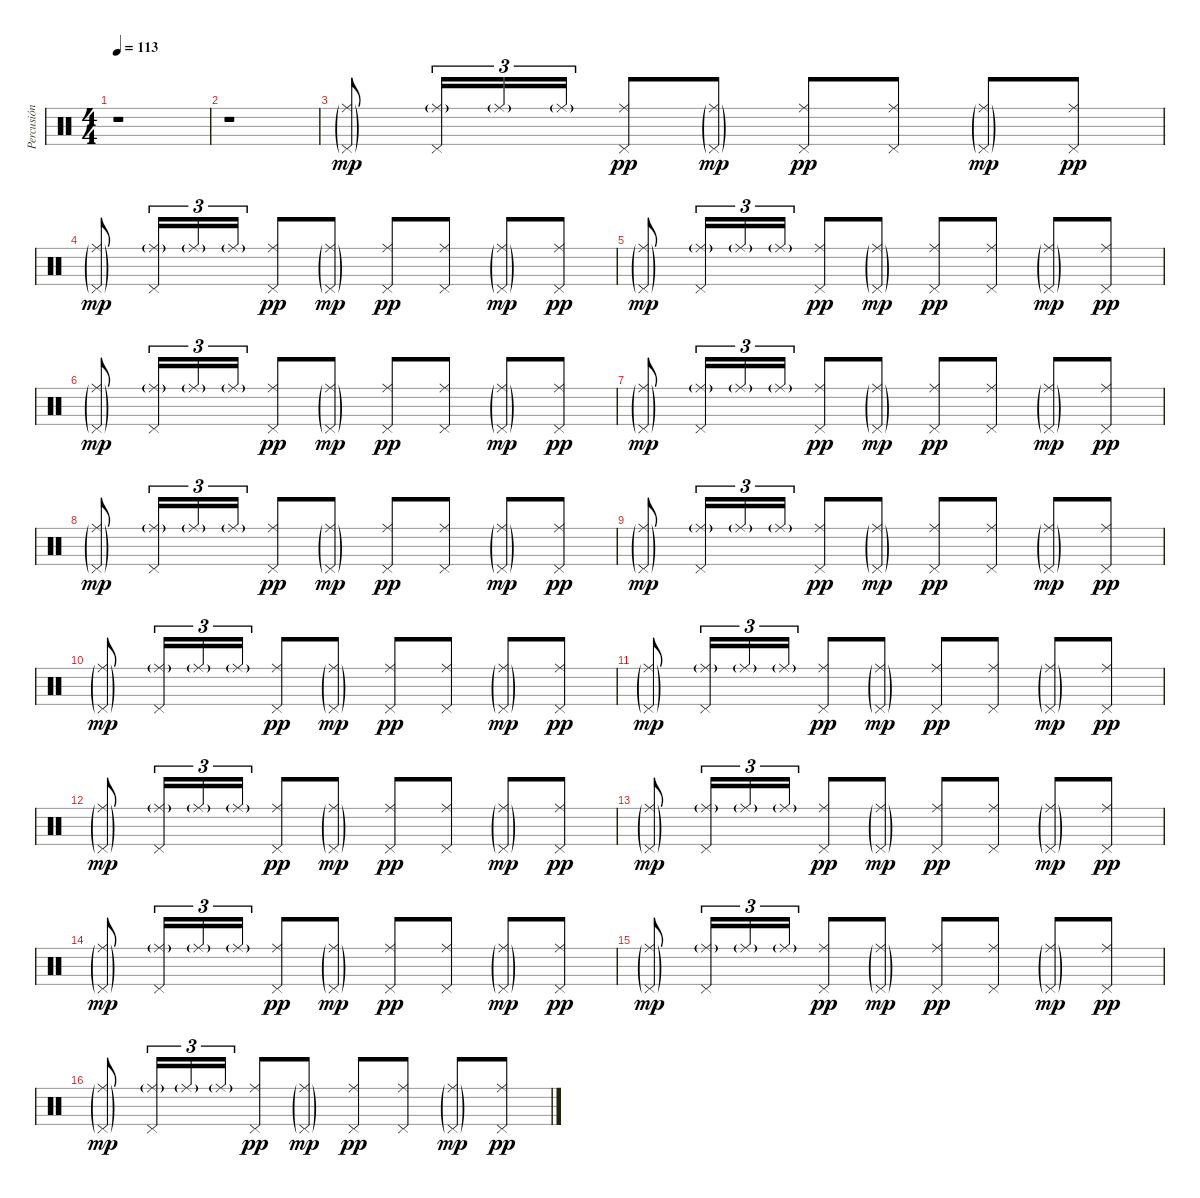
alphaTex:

\track ("Percusión" "Percusión") {instrument percussion}
\staff {score}
\articulation defaults
\ts (4 4)
\tempo 113
\clef neutral
\ks c
r.1{dy mp} |
r.1 |
("Pedal Hi-Hat (hit)"{g} "Ride (middle)"{g}).8 ("Pedal Hi-Hat (hit)" "Ride (middle)"{g}).16{tu (3 2)} "Ride (middle)"{g}.16{tu (3 2)} "Ride (middle)"{g}.16{tu (3 2)} ("Pedal Hi-Hat (hit)" "Ride (middle)").8{dy pp} ("Pedal Hi-Hat (hit)"{g} "Ride (middle)"{g}).8{dy mp} ("Pedal Hi-Hat (hit)" "Ride (middle)").8{dy pp} ("Pedal Hi-Hat (hit)" "Ride (middle)").8 ("Pedal Hi-Hat (hit)"{g} "Ride (middle)"{g}).8{dy mp} ("Pedal Hi-Hat (hit)" "Ride (middle)").8{dy pp} |
("Pedal Hi-Hat (hit)"{g} "Ride (middle)"{g}).8{dy mp} ("Pedal Hi-Hat (hit)" "Ride (middle)"{g}).16{tu (3 2)} "Ride (middle)"{g}.16{tu (3 2)} "Ride (middle)"{g}.16{tu (3 2)} ("Pedal Hi-Hat (hit)" "Ride (middle)").8{dy pp} ("Pedal Hi-Hat (hit)"{g} "Ride (middle)"{g}).8{dy mp} ("Pedal Hi-Hat (hit)" "Ride (middle)").8{dy pp} ("Pedal Hi-Hat (hit)" "Ride (middle)").8 ("Pedal Hi-Hat (hit)"{g} "Ride (middle)"{g}).8{dy mp} ("Pedal Hi-Hat (hit)" "Ride (middle)").8{dy pp} |
("Pedal Hi-Hat (hit)"{g} "Ride (middle)"{g}).8{dy mp} ("Pedal Hi-Hat (hit)" "Ride (middle)"{g}).16{tu (3 2)} "Ride (middle)"{g}.16{tu (3 2)} "Ride (middle)"{g}.16{tu (3 2)} ("Pedal Hi-Hat (hit)" "Ride (middle)").8{dy pp} ("Pedal Hi-Hat (hit)"{g} "Ride (middle)"{g}).8{dy mp} ("Pedal Hi-Hat (hit)" "Ride (middle)").8{dy pp} ("Pedal Hi-Hat (hit)" "Ride (middle)").8 ("Pedal Hi-Hat (hit)"{g} "Ride (middle)"{g}).8{dy mp} ("Pedal Hi-Hat (hit)" "Ride (middle)").8{dy pp} |
("Pedal Hi-Hat (hit)"{g} "Ride (middle)"{g}).8{dy mp} ("Pedal Hi-Hat (hit)" "Ride (middle)"{g}).16{tu (3 2)} "Ride (middle)"{g}.16{tu (3 2)} "Ride (middle)"{g}.16{tu (3 2)} ("Pedal Hi-Hat (hit)" "Ride (middle)").8{dy pp} ("Pedal Hi-Hat (hit)"{g} "Ride (middle)"{g}).8{dy mp} ("Pedal Hi-Hat (hit)" "Ride (middle)").8{dy pp} ("Pedal Hi-Hat (hit)" "Ride (middle)").8 ("Pedal Hi-Hat (hit)"{g} "Ride (middle)"{g}).8{dy mp} ("Pedal Hi-Hat (hit)" "Ride (middle)").8{dy pp} |
("Pedal Hi-Hat (hit)"{g} "Ride (middle)"{g}).8{dy mp} ("Pedal Hi-Hat (hit)" "Ride (middle)"{g}).16{tu (3 2)} "Ride (middle)"{g}.16{tu (3 2)} "Ride (middle)"{g}.16{tu (3 2)} ("Pedal Hi-Hat (hit)" "Ride (middle)").8{dy pp} ("Pedal Hi-Hat (hit)"{g} "Ride (middle)"{g}).8{dy mp} ("Pedal Hi-Hat (hit)" "Ride (middle)").8{dy pp} ("Pedal Hi-Hat (hit)" "Ride (middle)").8 ("Pedal Hi-Hat (hit)"{g} "Ride (middle)"{g}).8{dy mp} ("Pedal Hi-Hat (hit)" "Ride (middle)").8{dy pp} |
("Pedal Hi-Hat (hit)"{g} "Ride (middle)"{g}).8{dy mp} ("Pedal Hi-Hat (hit)" "Ride (middle)"{g}).16{tu (3 2)} "Ride (middle)"{g}.16{tu (3 2)} "Ride (middle)"{g}.16{tu (3 2)} ("Pedal Hi-Hat (hit)" "Ride (middle)").8{dy pp} ("Pedal Hi-Hat (hit)"{g} "Ride (middle)"{g}).8{dy mp} ("Pedal Hi-Hat (hit)" "Ride (middle)").8{dy pp} ("Pedal Hi-Hat (hit)" "Ride (middle)").8 ("Pedal Hi-Hat (hit)"{g} "Ride (middle)"{g}).8{dy mp} ("Pedal Hi-Hat (hit)" "Ride (middle)").8{dy pp} |
("Pedal Hi-Hat (hit)"{g} "Ride (middle)"{g}).8{dy mp} ("Pedal Hi-Hat (hit)" "Ride (middle)"{g}).16{tu (3 2)} "Ride (middle)"{g}.16{tu (3 2)} "Ride (middle)"{g}.16{tu (3 2)} ("Pedal Hi-Hat (hit)" "Ride (middle)").8{dy pp} ("Pedal Hi-Hat (hit)"{g} "Ride (middle)"{g}).8{dy mp} ("Pedal Hi-Hat (hit)" "Ride (middle)").8{dy pp} ("Pedal Hi-Hat (hit)" "Ride (middle)").8 ("Pedal Hi-Hat (hit)"{g} "Ride (middle)"{g}).8{dy mp} ("Pedal Hi-Hat (hit)" "Ride (middle)").8{dy pp} |
("Pedal Hi-Hat (hit)"{g} "Ride (middle)"{g}).8{dy mp} ("Pedal Hi-Hat (hit)" "Ride (middle)"{g}).16{tu (3 2)} "Ride (middle)"{g}.16{tu (3 2)} "Ride (middle)"{g}.16{tu (3 2)} ("Pedal Hi-Hat (hit)" "Ride (middle)").8{dy pp} ("Pedal Hi-Hat (hit)"{g} "Ride (middle)"{g}).8{dy mp} ("Pedal Hi-Hat (hit)" "Ride (middle)").8{dy pp} ("Pedal Hi-Hat (hit)" "Ride (middle)").8 ("Pedal Hi-Hat (hit)"{g} "Ride (middle)"{g}).8{dy mp} ("Pedal Hi-Hat (hit)" "Ride (middle)").8{dy pp} |
("Pedal Hi-Hat (hit)"{g} "Ride (middle)"{g}).8{dy mp} ("Pedal Hi-Hat (hit)" "Ride (middle)"{g}).16{tu (3 2)} "Ride (middle)"{g}.16{tu (3 2)} "Ride (middle)"{g}.16{tu (3 2)} ("Pedal Hi-Hat (hit)" "Ride (middle)").8{dy pp} ("Pedal Hi-Hat (hit)"{g} "Ride (middle)"{g}).8{dy mp} ("Pedal Hi-Hat (hit)" "Ride (middle)").8{dy pp} ("Pedal Hi-Hat (hit)" "Ride (middle)").8 ("Pedal Hi-Hat (hit)"{g} "Ride (middle)"{g}).8{dy mp} ("Pedal Hi-Hat (hit)" "Ride (middle)").8{dy pp} |
("Pedal Hi-Hat (hit)"{g} "Ride (middle)"{g}).8{dy mp} ("Pedal Hi-Hat (hit)" "Ride (middle)"{g}).16{tu (3 2)} "Ride (middle)"{g}.16{tu (3 2)} "Ride (middle)"{g}.16{tu (3 2)} ("Pedal Hi-Hat (hit)" "Ride (middle)").8{dy pp} ("Pedal Hi-Hat (hit)"{g} "Ride (middle)"{g}).8{dy mp} ("Pedal Hi-Hat (hit)" "Ride (middle)").8{dy pp} ("Pedal Hi-Hat (hit)" "Ride (middle)").8 ("Pedal Hi-Hat (hit)"{g} "Ride (middle)"{g}).8{dy mp} ("Pedal Hi-Hat (hit)" "Ride (middle)").8{dy pp} |
("Pedal Hi-Hat (hit)"{g} "Ride (middle)"{g}).8{dy mp} ("Pedal Hi-Hat (hit)" "Ride (middle)"{g}).16{tu (3 2)} "Ride (middle)"{g}.16{tu (3 2)} "Ride (middle)"{g}.16{tu (3 2)} ("Pedal Hi-Hat (hit)" "Ride (middle)").8{dy pp} ("Pedal Hi-Hat (hit)"{g} "Ride (middle)"{g}).8{dy mp} ("Pedal Hi-Hat (hit)" "Ride (middle)").8{dy pp} ("Pedal Hi-Hat (hit)" "Ride (middle)").8 ("Pedal Hi-Hat (hit)"{g} "Ride (middle)"{g}).8{dy mp} ("Pedal Hi-Hat (hit)" "Ride (middle)").8{dy pp} |
("Pedal Hi-Hat (hit)"{g} "Ride (middle)"{g}).8{dy mp} ("Pedal Hi-Hat (hit)" "Ride (middle)"{g}).16{tu (3 2)} "Ride (middle)"{g}.16{tu (3 2)} "Ride (middle)"{g}.16{tu (3 2)} ("Pedal Hi-Hat (hit)" "Ride (middle)").8{dy pp} ("Pedal Hi-Hat (hit)"{g} "Ride (middle)"{g}).8{dy mp} ("Pedal Hi-Hat (hit)" "Ride (middle)").8{dy pp} ("Pedal Hi-Hat (hit)" "Ride (middle)").8 ("Pedal Hi-Hat (hit)"{g} "Ride (middle)"{g}).8{dy mp} ("Pedal Hi-Hat (hit)" "Ride (middle)").8{dy pp} |
("Pedal Hi-Hat (hit)"{g} "Ride (middle)"{g}).8{dy mp} ("Pedal Hi-Hat (hit)" "Ride (middle)"{g}).16{tu (3 2)} "Ride (middle)"{g}.16{tu (3 2)} "Ride (middle)"{g}.16{tu (3 2)} ("Pedal Hi-Hat (hit)" "Ride (middle)").8{dy pp} ("Pedal Hi-Hat (hit)"{g} "Ride (middle)"{g}).8{dy mp} ("Pedal Hi-Hat (hit)" "Ride (middle)").8{dy pp} ("Pedal Hi-Hat (hit)" "Ride (middle)").8 ("Pedal Hi-Hat (hit)"{g} "Ride (middle)"{g}).8{dy mp} ("Pedal Hi-Hat (hit)" "Ride (middle)").8{dy pp} |
("Pedal Hi-Hat (hit)"{g} "Ride (middle)"{g}).8{dy mp} ("Pedal Hi-Hat (hit)" "Ride (middle)"{g}).16{tu (3 2)} "Ride (middle)"{g}.16{tu (3 2)} "Ride (middle)"{g}.16{tu (3 2)} ("Pedal Hi-Hat (hit)" "Ride (middle)").8{dy pp} ("Pedal Hi-Hat (hit)"{g} "Ride (middle)"{g}).8{dy mp} ("Pedal Hi-Hat (hit)" "Ride (middle)").8{dy pp} ("Pedal Hi-Hat (hit)" "Ride (middle)").8 ("Pedal Hi-Hat (hit)"{g} "Ride (middle)"{g}).8{dy mp} ("Pedal Hi-Hat (hit)" "Ride (middle)").8{dy pp}
